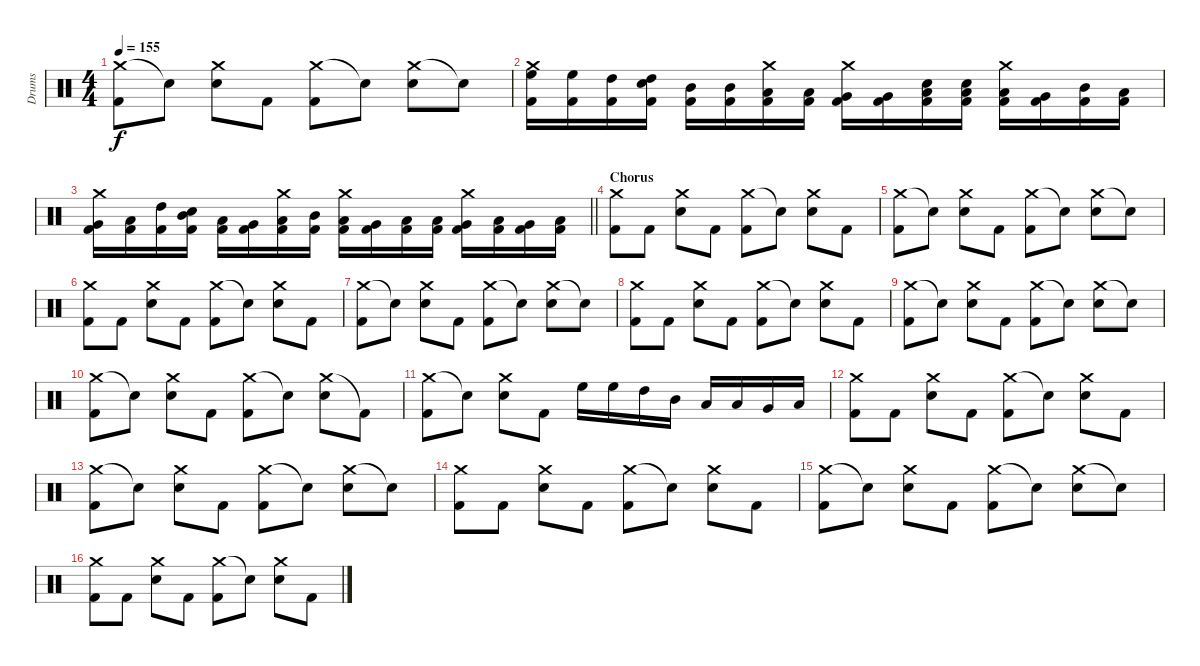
\track ("Drums" "Drums") {instrument percussion}
\staff {score}
\articulation defaults
\ts (4 4)
\tempo 155
\clef neutral
\ks c
("Crash medium (hit)" "Kick (hit) 2").8{dy f} "Electric Snare (hit)"{t}.8 ("Crash medium (hit)" "Electric Snare (hit)").8 "Kick (hit) 2".8 ("Crash medium (hit)" "Kick (hit) 2").8 "Electric Snare (hit)"{t}.8 ("Crash medium (hit)" "Electric Snare (hit)").8 "Snare (hit)"{t}.8 |
("Crash medium (hit)" "Kick (hit) 2" "High Floor Tom (hit)").16 ("Kick (hit) 2" "High Floor Tom (hit)").16 ("Kick (hit) 2" "High Tom (hit)").16 ("Kick (hit) 2" "High Tom (hit)" "Electric Snare (hit)").16 ("Kick (hit) 2" "Mid Tom (hit)").16 ("Kick (hit) 2" "Mid Tom (hit)").16 ("Crash medium (hit)" "Kick (hit) 2" "Low Tom (hit)").16 ("Kick (hit) 2" "Low Tom (hit)").16 ("Crash medium (hit)" "Kick (hit) 2" "Very Low Tom (hit)").16 ("Kick (hit) 2" "Very Low Tom (hit)").16 ("Kick (hit) 2" "Low Floor Tom (hit)" "Snare (hit)").16 ("Kick (hit) 2" "Low Floor Tom (hit)" "Electric Snare (hit)").16 ("Crash medium (hit)" "Kick (hit) 2" "Low Tom (hit)").16 ("Kick (hit) 2" "Very Low Tom (hit)").16 ("Kick (hit) 2" "Mid Tom (hit)").16 ("Kick (hit) 2" "Low Tom (hit)").16 |
\barLineRight lightlight
("Crash medium (hit)" "Kick (hit) 2" "Very Low Tom (hit)").16 ("Kick (hit) 2" "Low Floor Tom (hit)").16 ("Kick (hit) 2" "High Tom (hit)").16 ("Kick (hit) 2" "Mid Tom (hit)" "Electric Snare (hit)").16 ("Kick (hit) 2" "Low Tom (hit)").16 ("Kick (hit) 2" "Very Low Tom (hit)").16 ("Crash medium (hit)" "Kick (hit) 2" "Low Tom (hit)").16 ("Kick (hit) 2" "Mid Tom (hit)").16 ("Crash medium (hit)" "Kick (hit) 2" "Low Tom (hit)").16 ("Kick (hit) 2" "Very Low Tom (hit)").16 ("Kick (hit) 2" "Low Floor Tom (hit)").16 ("Kick (hit) 2" "Low Tom (hit)").16 ("Crash medium (hit)" "Kick (hit) 2" "Very Low Tom (hit)").16 ("Kick (hit) 2" "Low Floor Tom (hit)").16 ("Kick (hit) 2" "Very Low Tom (hit)").16 ("Kick (hit) 2" "Low Floor Tom (hit)").16 |
\section ("" "Chorus")
("Crash medium (hit)" "Kick (hit) 2").8 "Kick (hit) 2".8 ("Crash medium (hit)" "Electric Snare (hit)").8 "Kick (hit) 2".8 ("Crash medium (hit)" "Kick (hit) 2").8 "Snare (hit)"{t}.8 ("Crash medium (hit)" "Electric Snare (hit)").8 "Kick (hit) 2".8 |
("Crash medium (hit)" "Kick (hit) 2").8 "Snare (hit)"{t}.8 ("Crash medium (hit)" "Electric Snare (hit)").8 "Kick (hit) 2".8 ("Crash medium (hit)" "Kick (hit) 2").8 "Snare (hit)"{t}.8 ("Crash medium (hit)" "Electric Snare (hit)").8 "Snare (hit)"{t}.8 |
("Crash medium (hit)" "Kick (hit) 2").8 "Kick (hit) 2".8 ("Crash medium (hit)" "Electric Snare (hit)").8 "Kick (hit) 2".8 ("Crash medium (hit)" "Kick (hit) 2").8 "Snare (hit)"{t}.8 ("Crash medium (hit)" "Electric Snare (hit)").8 "Kick (hit) 2".8 |
("Crash medium (hit)" "Kick (hit) 2").8 "Snare (hit)"{t}.8 ("Crash medium (hit)" "Electric Snare (hit)").8 "Kick (hit) 2".8 ("Crash medium (hit)" "Kick (hit) 2").8 "Snare (hit)"{t}.8 ("Crash medium (hit)" "Electric Snare (hit)").8 "Snare (hit)"{t}.8 |
("Crash medium (hit)" "Kick (hit) 2").8 "Kick (hit) 2".8 ("Crash medium (hit)" "Electric Snare (hit)").8 "Kick (hit) 2".8 ("Crash medium (hit)" "Kick (hit) 2").8 "Snare (hit)"{t}.8 ("Crash medium (hit)" "Electric Snare (hit)").8 "Kick (hit) 2".8 |
("Crash medium (hit)" "Kick (hit) 2").8 "Snare (hit)"{t}.8 ("Crash medium (hit)" "Electric Snare (hit)").8 "Kick (hit) 2".8 ("Crash medium (hit)" "Kick (hit) 2").8 "Snare (hit)"{t}.8 ("Crash medium (hit)" "Electric Snare (hit)").8 "Snare (hit)"{t}.8 |
("Crash medium (hit)" "Kick (hit) 2").8 "Snare (hit)"{t}.8 ("Crash medium (hit)" "Electric Snare (hit)").8 "Kick (hit) 2".8 ("Crash medium (hit)" "Kick (hit) 2").8 "Snare (hit)"{t}.8 ("Crash medium (hit)" "Electric Snare (hit)").8 "Kick (hit) 2"{t}.8 |
("Crash medium (hit)" "Kick (hit) 2").8 "Electric Snare (hit)"{t}.8 ("Crash medium (hit)" "Electric Snare (hit)").8 "Kick (hit) 2".8 "High Floor Tom (hit)".16 "High Floor Tom (hit)".16 "High Tom (hit)".16 "Mid Tom (hit)".16 "Low Tom (hit)".16 "Low Tom (hit)".16 "Very Low Tom (hit)".16 "Low Floor Tom (hit)".16 |
("Crash medium (hit)" "Kick (hit) 2").8 "Kick (hit) 2".8 ("Crash medium (hit)" "Electric Snare (hit)").8 "Kick (hit) 2".8 ("Crash medium (hit)" "Kick (hit) 2").8 "Snare (hit)"{t}.8 ("Crash medium (hit)" "Electric Snare (hit)").8 "Kick (hit) 2".8 |
("Crash medium (hit)" "Kick (hit) 2").8 "Snare (hit)"{t}.8 ("Crash medium (hit)" "Electric Snare (hit)").8 "Kick (hit) 2".8 ("Crash medium (hit)" "Kick (hit) 2").8 "Snare (hit)"{t}.8 ("Crash medium (hit)" "Electric Snare (hit)").8 "Snare (hit)"{t}.8 |
("Crash medium (hit)" "Kick (hit) 2").8 "Kick (hit) 2".8 ("Crash medium (hit)" "Electric Snare (hit)").8 "Kick (hit) 2".8 ("Crash medium (hit)" "Kick (hit) 2").8 "Snare (hit)"{t}.8 ("Crash medium (hit)" "Electric Snare (hit)").8 "Kick (hit) 2".8 |
("Crash medium (hit)" "Kick (hit) 2").8 "Snare (hit)"{t}.8 ("Crash medium (hit)" "Electric Snare (hit)").8 "Kick (hit) 2".8 ("Crash medium (hit)" "Kick (hit) 2").8 "Snare (hit)"{t}.8 ("Crash medium (hit)" "Electric Snare (hit)").8 "Snare (hit)"{t}.8 |
("Crash medium (hit)" "Kick (hit) 2").8 "Kick (hit) 2".8 ("Crash medium (hit)" "Electric Snare (hit)").8 "Kick (hit) 2".8 ("Crash medium (hit)" "Kick (hit) 2").8 "Snare (hit)"{t}.8 ("Crash medium (hit)" "Electric Snare (hit)").8 "Kick (hit) 2".8
